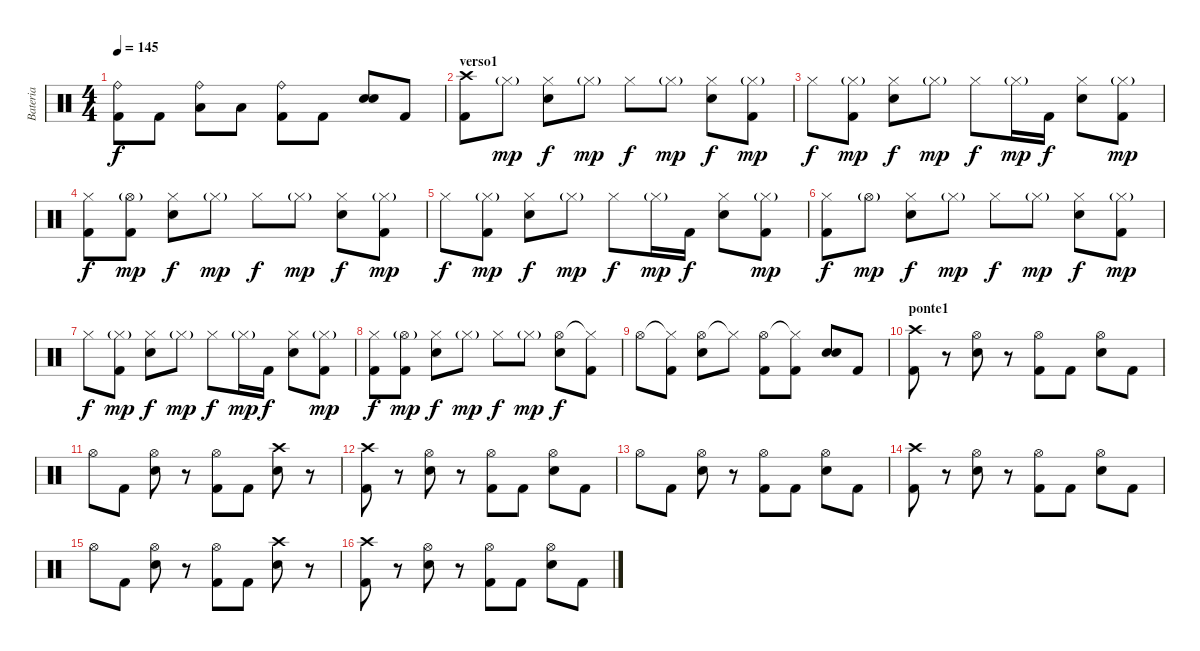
\track ("Bateria" "Bateria") {instrument percussion}
\staff {score}
\articulation defaults
\ts (4 4)
\tempo 145
\clef neutral
\ks c
("Ride (bell)" "Kick (hit) 2").8{dy f} "Kick (hit) 2".8 ("Ride (bell)" "Low Tom (hit)").8 "Low Tom (hit)".8 ("Ride (bell)" "Kick (hit) 2").8 "Kick (hit) 2".8 ("Electric Snare (hit)" "Electric Snare (hit)").8 "Kick (hit) 2".8 |
\section ("" "verso1")
("Crash high (hit)" "Kick (hit) 2").8 "Hi-Hat (closed)"{g}.8{dy mp} ("Hi-Hat (closed)" "Electric Snare (hit)").8{dy f} "Hi-Hat (closed)"{g}.8{dy mp} "Hi-Hat (closed)".8{dy f} "Hi-Hat (closed)"{g}.8{dy mp} ("Hi-Hat (closed)" "Electric Snare (hit)").8{dy f} ("Hi-Hat (closed)"{g} "Kick (hit) 2").8{dy mp} |
"Hi-Hat (closed)".8{dy f} ("Hi-Hat (closed)"{g} "Kick (hit) 2").8{dy mp} ("Hi-Hat (closed)" "Electric Snare (hit)").8{dy f} "Hi-Hat (closed)"{g}.8{dy mp} "Hi-Hat (closed)".8{dy f} "Hi-Hat (closed)"{g}.16{dy mp} "Kick (hit) 2".16{dy f} ("Hi-Hat (closed)" "Electric Snare (hit)").8 ("Hi-Hat (closed)"{g} "Kick (hit) 2").8{dy mp} |
("Hi-Hat (closed)" "Kick (hit) 2").8{dy f} ("Hi-Hat (open)"{g} "Kick (hit) 2").8{dy mp} ("Hi-Hat (closed)" "Electric Snare (hit)").8{dy f} "Hi-Hat (closed)"{g}.8{dy mp} "Hi-Hat (closed)".8{dy f} "Hi-Hat (closed)"{g}.8{dy mp} ("Hi-Hat (closed)" "Electric Snare (hit)").8{dy f} ("Hi-Hat (closed)"{g} "Kick (hit) 2").8{dy mp} |
"Hi-Hat (closed)".8{dy f} ("Hi-Hat (closed)"{g} "Kick (hit) 2").8{dy mp} ("Hi-Hat (closed)" "Electric Snare (hit)").8{dy f} "Hi-Hat (closed)"{g}.8{dy mp} "Hi-Hat (closed)".8{dy f} "Hi-Hat (closed)"{g}.16{dy mp} "Kick (hit) 2".16{dy f} ("Hi-Hat (closed)" "Electric Snare (hit)").8 ("Hi-Hat (closed)"{g} "Kick (hit) 2").8{dy mp} |
("Hi-Hat (closed)" "Kick (hit) 2").8{dy f} "Hi-Hat (open)"{g}.8{dy mp} ("Hi-Hat (closed)" "Electric Snare (hit)").8{dy f} "Hi-Hat (closed)"{g}.8{dy mp} "Hi-Hat (closed)".8{dy f} "Hi-Hat (closed)"{g}.8{dy mp} ("Hi-Hat (closed)" "Electric Snare (hit)").8{dy f} ("Hi-Hat (closed)"{g} "Kick (hit) 2").8{dy mp} |
"Hi-Hat (closed)".8{dy f} ("Hi-Hat (closed)"{g} "Kick (hit) 2").8{dy mp} ("Hi-Hat (closed)" "Electric Snare (hit)").8{dy f} "Hi-Hat (closed)"{g}.8{dy mp} "Hi-Hat (closed)".8{dy f} "Hi-Hat (closed)"{g}.16{dy mp} "Kick (hit) 2".16{dy f} ("Hi-Hat (closed)" "Electric Snare (hit)").8 ("Hi-Hat (closed)"{g} "Kick (hit) 2").8{dy mp} |
("Hi-Hat (closed)" "Kick (hit) 2").8{dy f} ("Hi-Hat (open)"{g} "Kick (hit) 2").8{dy mp} ("Hi-Hat (closed)" "Electric Snare (hit)").8{dy f} "Hi-Hat (closed)"{g}.8{dy mp} "Hi-Hat (closed)".8{dy f} "Hi-Hat (closed)"{g}.8{dy mp} ("Hi-Hat (open)" "Electric Snare (hit)").8{dy f} ("Hi-Hat (closed)"{t} "Kick (hit) 2").8 |
"Hi-Hat (open)".8 ("Hi-Hat (closed)"{t} "Kick (hit) 2").8 ("Hi-Hat (open)" "Electric Snare (hit)").8 "Hi-Hat (closed)"{t}.8 ("Hi-Hat (open)" "Kick (hit) 2").8 ("Hi-Hat (closed)"{t} "Kick (hit) 2").8 ("Electric Snare (hit)" "Electric Snare (hit)").8 "Kick (hit) 2".8 |
\section ("" "ponte1")
("Crash high (hit)" "Kick (hit) 2").8 r.8 ("Hi-Hat (open)" "Electric Snare (hit)").8 r.8 ("Hi-Hat (open)" "Kick (hit) 2").8 "Kick (hit) 2".8 ("Hi-Hat (open)" "Electric Snare (hit)").8 "Kick (hit) 2".8 |
"Hi-Hat (open)".8 "Kick (hit) 2".8 ("Hi-Hat (open)" "Electric Snare (hit)").8 r.8 ("Hi-Hat (open)" "Kick (hit) 2").8 "Kick (hit) 2".8 ("Crash high (hit)" "Electric Snare (hit)").8 r.8 |
("Crash high (hit)" "Kick (hit) 2").8 r.8 ("Hi-Hat (open)" "Electric Snare (hit)").8 r.8 ("Hi-Hat (open)" "Kick (hit) 2").8 "Kick (hit) 2".8 ("Hi-Hat (open)" "Electric Snare (hit)").8 "Kick (hit) 2".8 |
"Hi-Hat (open)".8 "Kick (hit) 2".8 ("Hi-Hat (open)" "Electric Snare (hit)").8 r.8 ("Hi-Hat (open)" "Kick (hit) 2").8 "Kick (hit) 2".8 ("Hi-Hat (open)" "Electric Snare (hit)").8 "Kick (hit) 2".8 |
("Crash high (hit)" "Kick (hit) 2").8 r.8 ("Hi-Hat (open)" "Electric Snare (hit)").8 r.8 ("Hi-Hat (open)" "Kick (hit) 2").8 "Kick (hit) 2".8 ("Hi-Hat (open)" "Electric Snare (hit)").8 "Kick (hit) 2".8 |
"Hi-Hat (open)".8 "Kick (hit) 2".8 ("Hi-Hat (open)" "Electric Snare (hit)").8 r.8 ("Hi-Hat (open)" "Kick (hit) 2").8 "Kick (hit) 2".8 ("Crash high (hit)" "Electric Snare (hit)").8 r.8 |
("Crash high (hit)" "Kick (hit) 2").8 r.8 ("Hi-Hat (open)" "Electric Snare (hit)").8 r.8 ("Hi-Hat (open)" "Kick (hit) 2").8 "Kick (hit) 2".8 ("Hi-Hat (open)" "Electric Snare (hit)").8 "Kick (hit) 2".8
